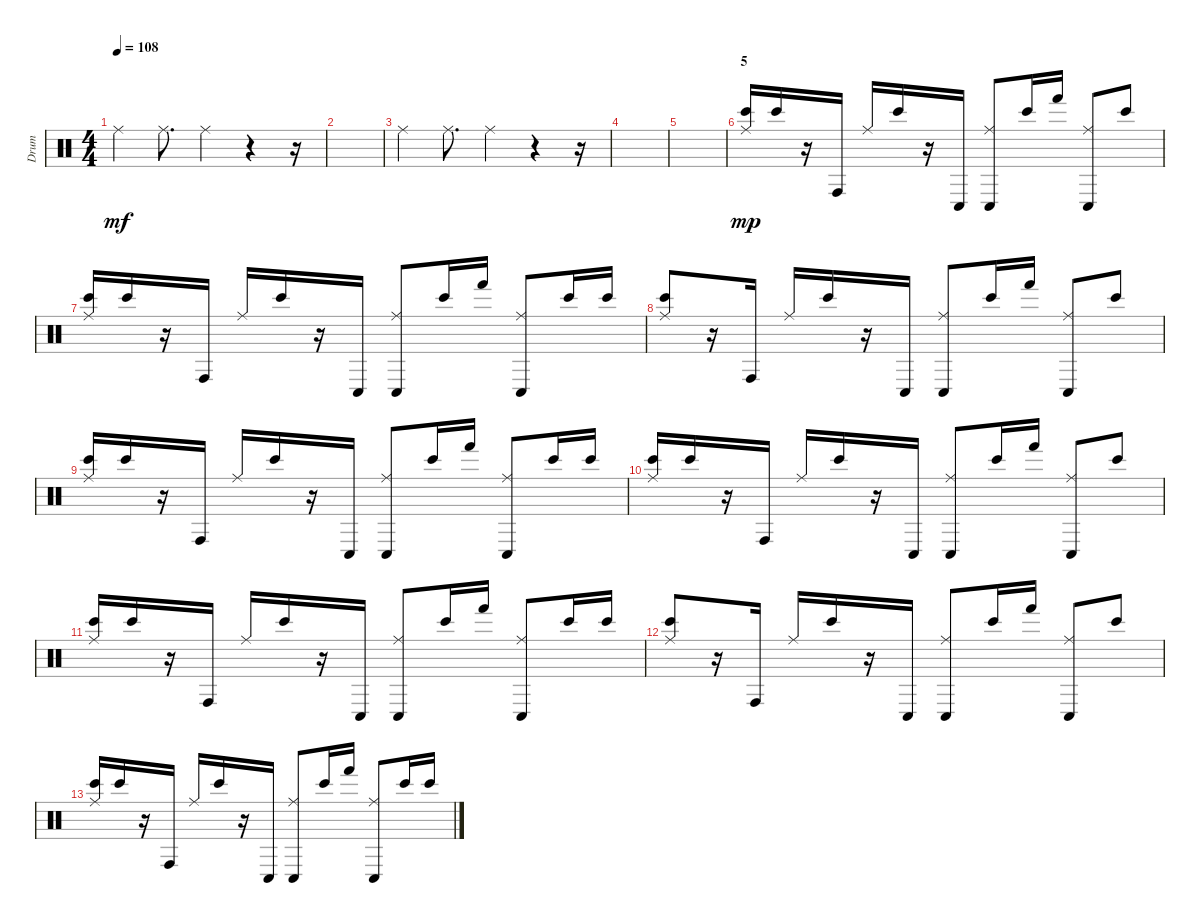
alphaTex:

\track ("Drum" "Drum") {instrument percussion}
\staff {score}
\articulation defaults
\ts (4 4)
\tempo 108
\clef neutral
\ks c "Ride (middle)".4{dy mf} "Ride (middle)".8{d} "Ride (middle)".4
r.4 r.16 |
|
"Ride (middle)".4 "Ride (middle)".8{d} "Ride (middle)".4 r.4 r.16 |
|
|
\section ("" "5")
("Ride (middle)" "Bongo High (hit)").16{dy mp} "Bongo High (hit)".16 r.16 "Conga high (hit)".16 "Ride (middle)".16 "Bongo High (hit)".16 r.16 "Conga low (hit)".16 ("Ride (middle)" "Conga low (hit)").8 "Bongo High (hit)".16 "Hand (hit)".16 ("Ride (middle)" "Conga low (hit)").8 "Bongo High (hit)".8 |
("Ride (middle)" "Bongo High (hit)").16 "Bongo High (hit)".16 r.16 "Conga high (hit)".16 "Ride (middle)".16 "Bongo High (hit)".16 r.16 "Conga low (hit)".16 ("Ride (middle)" "Conga low (hit)").8 "Bongo High (hit)".16 "Hand (hit)".16 ("Ride (middle)" "Conga low (hit)").8 "Bongo High (hit)".16 "Bongo High (hit)".16 |
("Ride (middle)" "Bongo High (hit)").8 r.16 "Conga high (hit)".16 "Ride (middle)".16 "Bongo High (hit)".16 r.16 "Conga low (hit)".16 ("Ride (middle)" "Conga low (hit)").8 "Bongo High (hit)".16 "Hand (hit)".16 ("Ride (middle)" "Conga low (hit)").8 "Bongo High (hit)".8 |
("Ride (middle)" "Bongo High (hit)").16 "Bongo High (hit)".16 r.16 "Conga high (hit)".16 "Ride (middle)".16 "Bongo High (hit)".16 r.16 "Conga low (hit)".16 ("Ride (middle)" "Conga low (hit)").8 "Bongo High (hit)".16 "Hand (hit)".16 ("Ride (middle)" "Conga low (hit)").8 "Bongo High (hit)".16 "Bongo High (hit)".16 |
("Ride (middle)" "Bongo High (hit)").16 "Bongo High (hit)".16 r.16 "Conga high (hit)".16 "Ride (middle)".16 "Bongo High (hit)".16 r.16 "Conga low (hit)".16 ("Ride (middle)" "Conga low (hit)").8 "Bongo High (hit)".16 "Hand (hit)".16 ("Ride (middle)" "Conga low (hit)").8 "Bongo High (hit)".8 |
("Ride (middle)" "Bongo High (hit)").16 "Bongo High (hit)".16 r.16 "Conga high (hit)".16 "Ride (middle)".16 "Bongo High (hit)".16 r.16 "Conga low (hit)".16 ("Ride (middle)" "Conga low (hit)").8 "Bongo High (hit)".16 "Hand (hit)".16 ("Ride (middle)" "Conga low (hit)").8 "Bongo High (hit)".16 "Bongo High (hit)".16 |
("Ride (middle)" "Bongo High (hit)").8 r.16 "Conga high (hit)".16 "Ride (middle)".16 "Bongo High (hit)".16 r.16 "Conga low (hit)".16 ("Ride (middle)" "Conga low (hit)").8 "Bongo High (hit)".16 "Hand (hit)".16 ("Ride (middle)" "Conga low (hit)").8 "Bongo High (hit)".8 |
("Ride (middle)" "Bongo High (hit)").16 "Bongo High (hit)".16 r.16 "Conga high (hit)".16 "Ride (middle)".16 "Bongo High (hit)".16 r.16 "Conga low (hit)".16 ("Ride (middle)" "Conga low (hit)").8 "Bongo High (hit)".16 "Hand (hit)".16 ("Ride (middle)" "Conga low (hit)").8 "Bongo High (hit)".16 "Bongo High (hit)".16
